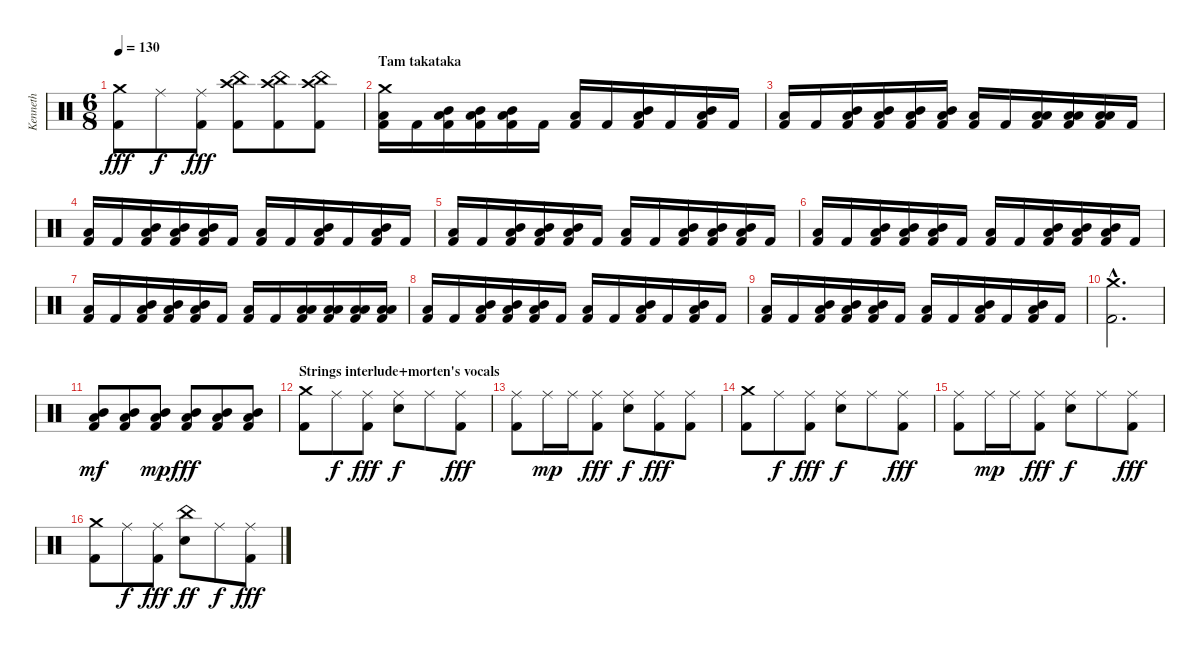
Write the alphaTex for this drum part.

\track ("Kenneth" "Kenneth") {instrument percussion}
\staff {score}
\articulation defaults
\ts (6 8)
\tempo 130
\clef neutral
\ks c
("Crash medium (hit)" "Kick (hit) 2").8{dy fff} "Ride (middle)".8{dy f} ("Ride (middle)" "Kick (hit) 2").8{dy fff} ("China (hit)" "Crash high (hit)" "Kick (hit) 2").8 ("China (hit)" "Crash high (hit)" "Kick (hit) 2").8 ("China (hit)" "Crash high (hit)" "Kick (hit) 2").8 |
\section ("" "Tam takataka")
("Crash medium (hit)" "Low Floor Tom (hit)" "Kick (hit) 2").16 "Kick (hit) 2".16 ("Mid Tom (hit)" "Low Floor Tom (hit)" "Kick (hit) 2").16 ("Mid Tom (hit)" "Low Floor Tom (hit)" "Kick (hit) 2").16 ("Mid Tom (hit)" "Low Floor Tom (hit)" "Kick (hit) 2").16 "Kick (hit) 2".16 ("Low Floor Tom (hit)" "Kick (hit) 2").16 "Kick (hit) 2".16 ("Mid Tom (hit)" "Low Floor Tom (hit)" "Kick (hit) 2").16 "Kick (hit) 2".16 ("Mid Tom (hit)" "Low Floor Tom (hit)" "Kick (hit) 2").16 "Kick (hit) 2".16 |
("Low Floor Tom (hit)" "Kick (hit) 2").16 "Kick (hit) 2".16 ("Mid Tom (hit)" "Low Floor Tom (hit)" "Kick (hit) 2").16 ("Mid Tom (hit)" "Low Floor Tom (hit)" "Kick (hit) 2").16 ("Mid Tom (hit)" "Low Floor Tom (hit)" "Kick (hit) 2").16 ("Mid Tom (hit)" "Low Floor Tom (hit)" "Kick (hit) 2").16 ("Low Floor Tom (hit)" "Kick (hit) 2").16 "Kick (hit) 2".16 ("Low Tom (hit)" "Low Floor Tom (hit)" "Kick (hit) 2").16 ("Low Tom (hit)" "Low Floor Tom (hit)" "Kick (hit) 2").16 ("Low Tom (hit)" "Low Floor Tom (hit)" "Kick (hit) 2").16 "Kick (hit) 2".16 |
("Low Floor Tom (hit)" "Kick (hit) 2").16 "Kick (hit) 2".16 ("Mid Tom (hit)" "Low Floor Tom (hit)" "Kick (hit) 2").16 ("Mid Tom (hit)" "Low Floor Tom (hit)" "Kick (hit) 2").16 ("Mid Tom (hit)" "Low Floor Tom (hit)" "Kick (hit) 2").16 "Kick (hit) 2".16 ("Low Floor Tom (hit)" "Kick (hit) 2").16 "Kick (hit) 2".16 ("Mid Tom (hit)" "Low Floor Tom (hit)" "Kick (hit) 2").16 "Kick (hit) 2".16 ("Mid Tom (hit)" "Low Floor Tom (hit)" "Kick (hit) 2").16 "Kick (hit) 2".16 |
("Low Floor Tom (hit)" "Kick (hit) 2").16 "Kick (hit) 2".16 ("Mid Tom (hit)" "Low Floor Tom (hit)" "Kick (hit) 2").16 ("Mid Tom (hit)" "Low Floor Tom (hit)" "Kick (hit) 2").16 ("Mid Tom (hit)" "Low Floor Tom (hit)" "Kick (hit) 2").16 "Kick (hit) 2".16 ("Low Floor Tom (hit)" "Kick (hit) 2").16 "Kick (hit) 2".16 ("Mid Tom (hit)" "Low Floor Tom (hit)" "Kick (hit) 2").16 ("Mid Tom (hit)" "Low Floor Tom (hit)" "Kick (hit) 2").16 ("Mid Tom (hit)" "Low Floor Tom (hit)" "Kick (hit) 2").16 "Kick (hit) 2".16 |
("Low Floor Tom (hit)" "Kick (hit) 2").16 "Kick (hit) 2".16 ("Mid Tom (hit)" "Low Floor Tom (hit)" "Kick (hit) 2").16 ("Mid Tom (hit)" "Low Floor Tom (hit)" "Kick (hit) 2").16 ("Mid Tom (hit)" "Low Floor Tom (hit)" "Kick (hit) 2").16 "Kick (hit) 2".16 ("Low Floor Tom (hit)" "Kick (hit) 2").16 "Kick (hit) 2".16 ("Mid Tom (hit)" "Low Floor Tom (hit)" "Kick (hit) 2").16 ("Mid Tom (hit)" "Low Floor Tom (hit)" "Kick (hit) 2").16 ("Mid Tom (hit)" "Low Floor Tom (hit)" "Kick (hit) 2").16 "Kick (hit) 2".16 |
("Low Floor Tom (hit)" "Kick (hit) 2").16 "Kick (hit) 2".16 ("Mid Tom (hit)" "Low Floor Tom (hit)" "Kick (hit) 2").16 ("Mid Tom (hit)" "Low Floor Tom (hit)" "Kick (hit) 2").16 ("Mid Tom (hit)" "Low Floor Tom (hit)" "Kick (hit) 2").16 "Kick (hit) 2".16 ("Low Floor Tom (hit)" "Kick (hit) 2").16 "Kick (hit) 2".16 ("Low Tom (hit)" "Low Floor Tom (hit)" "Kick (hit) 2").16 ("Low Tom (hit)" "Low Floor Tom (hit)" "Kick (hit) 2").16 ("Low Tom (hit)" "Low Floor Tom (hit)" "Kick (hit) 2").16 ("Low Tom (hit)" "Low Floor Tom (hit)" "Kick (hit) 2").16 |
("Low Floor Tom (hit)" "Kick (hit) 2").16 "Kick (hit) 2".16 ("Mid Tom (hit)" "Low Floor Tom (hit)" "Kick (hit) 2").16 ("Mid Tom (hit)" "Low Floor Tom (hit)" "Kick (hit) 2").16 ("Mid Tom (hit)" "Low Floor Tom (hit)" "Kick (hit) 2").16 "Kick (hit) 2".16 ("Low Floor Tom (hit)" "Kick (hit) 2").16 "Kick (hit) 2".16 ("Mid Tom (hit)" "Low Floor Tom (hit)" "Kick (hit) 2").16 "Kick (hit) 2".16 ("Mid Tom (hit)" "Low Floor Tom (hit)" "Kick (hit) 2").16 "Kick (hit) 2".16 |
("Low Floor Tom (hit)" "Kick (hit) 2").16 "Kick (hit) 2".16 ("Mid Tom (hit)" "Low Floor Tom (hit)" "Kick (hit) 2").16 ("Mid Tom (hit)" "Low Floor Tom (hit)" "Kick (hit) 2").16 ("Mid Tom (hit)" "Low Floor Tom (hit)" "Kick (hit) 2").16 "Kick (hit) 2".16 ("Low Floor Tom (hit)" "Kick (hit) 2").16 "Kick (hit) 2".16 ("Mid Tom (hit)" "Low Floor Tom (hit)" "Kick (hit) 2").16 "Kick (hit) 2".16 ("Mid Tom (hit)" "Low Floor Tom (hit)" "Kick (hit) 2").16 "Kick (hit) 2".16 |
("Crash medium (hit)"{hac} "Kick (hit) 2"{hac}).2{d} |
("Low Tom (hit)" "Mid Tom (hit)" "Kick (hit) 2").8{dy mf} ("Low Tom (hit)" "Mid Tom (hit)" "Kick (hit) 2").8 ("Low Tom (hit)" "Mid Tom (hit)" "Kick (hit) 2").8{dy mp} ("Low Tom (hit)" "Mid Tom (hit)" "Kick (hit) 2").8{dy fff} ("Low Tom (hit)" "Mid Tom (hit)" "Kick (hit) 2").8 ("Low Tom (hit)" "Mid Tom (hit)" "Kick (hit) 2").8 |
\section ("" "Strings interlude+morten's vocals")
("Crash medium (hit)" "Kick (hit) 2").8 "Ride (middle)".8{dy f} ("Ride (middle)" "Kick (hit) 2").8{dy fff} ("Ride (middle)" "Electric Snare (hit)").8{dy f} "Ride (middle)".8 ("Ride (middle)" "Kick (hit) 2").8{dy fff} |
("Ride (middle)" "Kick (hit) 2").8 "Ride (middle)".16{dy mp} "Ride (middle)".16 ("Ride (middle)" "Kick (hit) 2").8{dy fff} ("Ride (middle)" "Electric Snare (hit)").8{dy f} ("Ride (middle)" "Kick (hit) 2").8{dy fff} ("Ride (middle)" "Kick (hit) 2").8 |
("Crash medium (hit)" "Kick (hit) 2").8 "Ride (middle)".8{dy f} ("Ride (middle)" "Kick (hit) 2").8{dy fff} ("Ride (middle)" "Electric Snare (hit)").8{dy f} "Ride (middle)".8 ("Ride (middle)" "Kick (hit) 2").8{dy fff} |
("Ride (middle)" "Kick (hit) 2").8 "Ride (middle)".16{dy mp} "Ride (middle)".16 ("Ride (middle)" "Kick (hit) 2").8{dy fff} ("Ride (middle)" "Electric Snare (hit)").8{dy f} "Ride (middle)".8 ("Ride (middle)" "Kick (hit) 2").8{dy fff} |
("Crash medium (hit)" "Kick (hit) 2").8 "Ride (middle)".8{dy f} ("Ride (middle)" "Kick (hit) 2").8{dy fff} ("China (hit)" "Electric Snare (hit)").8{dy ff} "Ride (middle)".8{dy f} ("Ride (middle)" "Kick (hit) 2").8{dy fff}
